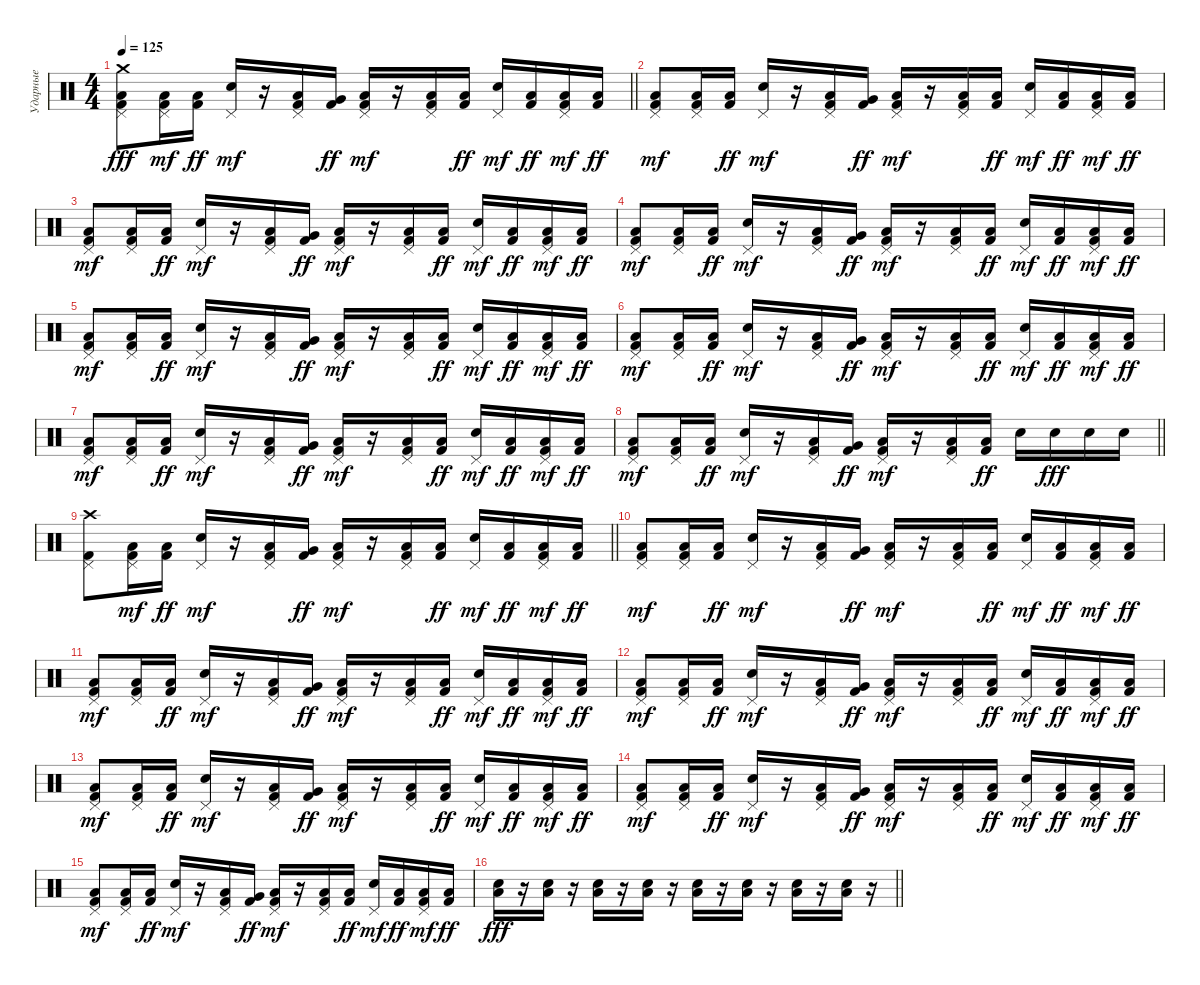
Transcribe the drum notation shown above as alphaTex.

\track ("Ударные" "Ударные") {instrument percussion}
\staff {score}
\articulation defaults
\ts (4 4)
\tempo 125
\clef neutral
\barLineRight lightlight
\ks c
("Kick (hit) 2" "Low Floor Tom (hit)" "Pedal Hi-Hat (hit)" "Crash medium (hit)").8{dy fff} ("Kick (hit) 2" "Low Floor Tom (hit)" "Pedal Hi-Hat (hit)").16{dy mf} ("Kick (hit) 2" "Low Tom (hit)").16{dy ff} ("Snare (hit) 2" "Pedal Hi-Hat (hit)").16{dy mf} r.16 ("Kick (hit) 2" "Low Tom (hit)" "Pedal Hi-Hat (hit)").16 ("Kick (hit) 2" "Very Low Tom (hit)").16{dy ff} ("Kick (hit) 2" "Low Floor Tom (hit)" "Pedal Hi-Hat (hit)").16{dy mf} r.16 ("Kick (hit) 2" "Low Floor Tom (hit)" "Pedal Hi-Hat (hit)").16 ("Kick (hit) 2" "Low Tom (hit)").16{dy ff} ("Snare (hit) 2" "Pedal Hi-Hat (hit)").16{dy mf} ("Kick (hit) 2" "Low Tom (hit)").16{dy ff} ("Kick (hit) 2" "Low Tom (hit)" "Pedal Hi-Hat (hit)").16{dy mf} ("Kick (hit) 2" "Low Floor Tom (hit)").16{dy ff} |
("Kick (hit) 2" "Low Floor Tom (hit)" "Pedal Hi-Hat (hit)").8{dy mf} ("Kick (hit) 2" "Low Floor Tom (hit)" "Pedal Hi-Hat (hit)").16 ("Kick (hit) 2" "Low Tom (hit)").16{dy ff} ("Snare (hit) 2" "Pedal Hi-Hat (hit)").16{dy mf} r.16 ("Kick (hit) 2" "Low Tom (hit)" "Pedal Hi-Hat (hit)").16 ("Kick (hit) 2" "Very Low Tom (hit)").16{dy ff} ("Kick (hit) 2" "Low Floor Tom (hit)" "Pedal Hi-Hat (hit)").16{dy mf} r.16 ("Kick (hit) 2" "Low Floor Tom (hit)" "Pedal Hi-Hat (hit)").16 ("Kick (hit) 2" "Low Tom (hit)").16{dy ff} ("Snare (hit) 2" "Pedal Hi-Hat (hit)").16{dy mf} ("Kick (hit) 2" "Low Tom (hit)").16{dy ff} ("Kick (hit) 2" "Low Tom (hit)" "Pedal Hi-Hat (hit)").16{dy mf} ("Kick (hit) 2" "Low Floor Tom (hit)").16{dy ff} |
("Kick (hit) 2" "Low Floor Tom (hit)" "Pedal Hi-Hat (hit)").8{dy mf} ("Kick (hit) 2" "Low Floor Tom (hit)" "Pedal Hi-Hat (hit)").16 ("Kick (hit) 2" "Low Tom (hit)").16{dy ff} ("Snare (hit) 2" "Pedal Hi-Hat (hit)").16{dy mf} r.16 ("Kick (hit) 2" "Low Tom (hit)" "Pedal Hi-Hat (hit)").16 ("Kick (hit) 2" "Very Low Tom (hit)").16{dy ff} ("Kick (hit) 2" "Low Floor Tom (hit)" "Pedal Hi-Hat (hit)").16{dy mf} r.16 ("Kick (hit) 2" "Low Floor Tom (hit)" "Pedal Hi-Hat (hit)").16 ("Kick (hit) 2" "Low Tom (hit)").16{dy ff} ("Snare (hit) 2" "Pedal Hi-Hat (hit)").16{dy mf} ("Kick (hit) 2" "Low Tom (hit)").16{dy ff} ("Kick (hit) 2" "Low Tom (hit)" "Pedal Hi-Hat (hit)").16{dy mf} ("Kick (hit) 2" "Low Floor Tom (hit)").16{dy ff} |
("Kick (hit) 2" "Low Floor Tom (hit)" "Pedal Hi-Hat (hit)").8{dy mf} ("Kick (hit) 2" "Low Floor Tom (hit)" "Pedal Hi-Hat (hit)").16 ("Kick (hit) 2" "Low Tom (hit)").16{dy ff} ("Snare (hit) 2" "Pedal Hi-Hat (hit)").16{dy mf} r.16 ("Kick (hit) 2" "Low Tom (hit)" "Pedal Hi-Hat (hit)").16 ("Kick (hit) 2" "Very Low Tom (hit)").16{dy ff} ("Kick (hit) 2" "Low Floor Tom (hit)" "Pedal Hi-Hat (hit)").16{dy mf} r.16 ("Kick (hit) 2" "Low Floor Tom (hit)" "Pedal Hi-Hat (hit)").16 ("Kick (hit) 2" "Low Tom (hit)").16{dy ff} ("Snare (hit) 2" "Pedal Hi-Hat (hit)").16{dy mf} ("Kick (hit) 2" "Low Tom (hit)").16{dy ff} ("Kick (hit) 2" "Low Tom (hit)" "Pedal Hi-Hat (hit)").16{dy mf} ("Kick (hit) 2" "Low Floor Tom (hit)").16{dy ff} |
("Kick (hit) 2" "Low Floor Tom (hit)" "Pedal Hi-Hat (hit)").8{dy mf} ("Kick (hit) 2" "Low Floor Tom (hit)" "Pedal Hi-Hat (hit)").16 ("Kick (hit) 2" "Low Tom (hit)").16{dy ff} ("Snare (hit) 2" "Pedal Hi-Hat (hit)").16{dy mf} r.16 ("Kick (hit) 2" "Low Tom (hit)" "Pedal Hi-Hat (hit)").16 ("Kick (hit) 2" "Very Low Tom (hit)").16{dy ff} ("Kick (hit) 2" "Low Floor Tom (hit)" "Pedal Hi-Hat (hit)").16{dy mf} r.16 ("Kick (hit) 2" "Low Floor Tom (hit)" "Pedal Hi-Hat (hit)").16 ("Kick (hit) 2" "Low Tom (hit)").16{dy ff} ("Snare (hit) 2" "Pedal Hi-Hat (hit)").16{dy mf} ("Kick (hit) 2" "Low Tom (hit)").16{dy ff} ("Kick (hit) 2" "Low Tom (hit)" "Pedal Hi-Hat (hit)").16{dy mf} ("Kick (hit) 2" "Low Floor Tom (hit)").16{dy ff} |
("Kick (hit) 2" "Low Floor Tom (hit)" "Pedal Hi-Hat (hit)").8{dy mf} ("Kick (hit) 2" "Low Floor Tom (hit)" "Pedal Hi-Hat (hit)").16 ("Kick (hit) 2" "Low Tom (hit)").16{dy ff} ("Snare (hit) 2" "Pedal Hi-Hat (hit)").16{dy mf} r.16 ("Kick (hit) 2" "Low Tom (hit)" "Pedal Hi-Hat (hit)").16 ("Kick (hit) 2" "Very Low Tom (hit)").16{dy ff} ("Kick (hit) 2" "Low Floor Tom (hit)" "Pedal Hi-Hat (hit)").16{dy mf} r.16 ("Kick (hit) 2" "Low Floor Tom (hit)" "Pedal Hi-Hat (hit)").16 ("Kick (hit) 2" "Low Tom (hit)").16{dy ff} ("Snare (hit) 2" "Pedal Hi-Hat (hit)").16{dy mf} ("Kick (hit) 2" "Low Tom (hit)").16{dy ff} ("Kick (hit) 2" "Low Tom (hit)" "Pedal Hi-Hat (hit)").16{dy mf} ("Kick (hit) 2" "Low Floor Tom (hit)").16{dy ff} |
("Kick (hit) 2" "Low Floor Tom (hit)" "Pedal Hi-Hat (hit)").8{dy mf} ("Kick (hit) 2" "Low Floor Tom (hit)" "Pedal Hi-Hat (hit)").16 ("Kick (hit) 2" "Low Tom (hit)").16{dy ff} ("Snare (hit) 2" "Pedal Hi-Hat (hit)").16{dy mf} r.16 ("Kick (hit) 2" "Low Tom (hit)" "Pedal Hi-Hat (hit)").16 ("Kick (hit) 2" "Very Low Tom (hit)").16{dy ff} ("Kick (hit) 2" "Low Floor Tom (hit)" "Pedal Hi-Hat (hit)").16{dy mf} r.16 ("Kick (hit) 2" "Low Floor Tom (hit)" "Pedal Hi-Hat (hit)").16 ("Kick (hit) 2" "Low Tom (hit)").16{dy ff} ("Snare (hit) 2" "Pedal Hi-Hat (hit)").16{dy mf} ("Kick (hit) 2" "Low Tom (hit)").16{dy ff} ("Kick (hit) 2" "Low Tom (hit)" "Pedal Hi-Hat (hit)").16{dy mf} ("Kick (hit) 2" "Low Floor Tom (hit)").16{dy ff} |
\barLineRight lightlight
("Kick (hit) 2" "Low Floor Tom (hit)" "Pedal Hi-Hat (hit)").8{dy mf} ("Kick (hit) 2" "Low Floor Tom (hit)" "Pedal Hi-Hat (hit)").16 ("Kick (hit) 2" "Low Tom (hit)").16{dy ff} ("Snare (hit) 2" "Pedal Hi-Hat (hit)").16{dy mf} r.16 ("Kick (hit) 2" "Low Tom (hit)" "Pedal Hi-Hat (hit)").16 ("Kick (hit) 2" "Very Low Tom (hit)").16{dy ff} ("Kick (hit) 2" "Low Floor Tom (hit)" "Pedal Hi-Hat (hit)").16{dy mf} r.16 ("Kick (hit) 2" "Low Floor Tom (hit)" "Pedal Hi-Hat (hit)").16 ("Kick (hit) 2" "Low Tom (hit)").16{dy ff} "Snare (hit) 2".16 "Snare (hit) 2".16{dy fff} "Snare (hit) 2".16 "Snare (hit) 2".16 |
\barLineRight lightlight
("Kick (hit) 2" "Pedal Hi-Hat (hit)" "Crash high (hit)").8 ("Kick (hit) 2" "Low Floor Tom (hit)" "Pedal Hi-Hat (hit)").16{dy mf} ("Kick (hit) 2" "Low Tom (hit)").16{dy ff} ("Snare (hit) 2" "Pedal Hi-Hat (hit)").16{dy mf} r.16 ("Kick (hit) 2" "Low Tom (hit)" "Pedal Hi-Hat (hit)").16 ("Kick (hit) 2" "Very Low Tom (hit)").16{dy ff} ("Kick (hit) 2" "Low Floor Tom (hit)" "Pedal Hi-Hat (hit)").16{dy mf} r.16 ("Kick (hit) 2" "Low Floor Tom (hit)" "Pedal Hi-Hat (hit)").16 ("Kick (hit) 2" "Low Tom (hit)").16{dy ff} ("Snare (hit) 2" "Pedal Hi-Hat (hit)").16{dy mf} ("Kick (hit) 2" "Low Tom (hit)").16{dy ff} ("Kick (hit) 2" "Low Tom (hit)" "Pedal Hi-Hat (hit)").16{dy mf} ("Kick (hit) 2" "Low Floor Tom (hit)").16{dy ff} |
("Kick (hit) 2" "Low Floor Tom (hit)" "Pedal Hi-Hat (hit)").8{dy mf} ("Kick (hit) 2" "Low Floor Tom (hit)" "Pedal Hi-Hat (hit)").16 ("Kick (hit) 2" "Low Tom (hit)").16{dy ff} ("Snare (hit) 2" "Pedal Hi-Hat (hit)").16{dy mf} r.16 ("Kick (hit) 2" "Low Tom (hit)" "Pedal Hi-Hat (hit)").16 ("Kick (hit) 2" "Very Low Tom (hit)").16{dy ff} ("Kick (hit) 2" "Low Floor Tom (hit)" "Pedal Hi-Hat (hit)").16{dy mf} r.16 ("Kick (hit) 2" "Low Floor Tom (hit)" "Pedal Hi-Hat (hit)").16 ("Kick (hit) 2" "Low Tom (hit)").16{dy ff} ("Snare (hit) 2" "Pedal Hi-Hat (hit)").16{dy mf} ("Kick (hit) 2" "Low Tom (hit)").16{dy ff} ("Kick (hit) 2" "Low Tom (hit)" "Pedal Hi-Hat (hit)").16{dy mf} ("Kick (hit) 2" "Low Floor Tom (hit)").16{dy ff} |
("Kick (hit) 2" "Low Floor Tom (hit)" "Pedal Hi-Hat (hit)").8{dy mf} ("Kick (hit) 2" "Low Floor Tom (hit)" "Pedal Hi-Hat (hit)").16 ("Kick (hit) 2" "Low Tom (hit)").16{dy ff} ("Snare (hit) 2" "Pedal Hi-Hat (hit)").16{dy mf} r.16 ("Kick (hit) 2" "Low Tom (hit)" "Pedal Hi-Hat (hit)").16 ("Kick (hit) 2" "Very Low Tom (hit)").16{dy ff} ("Kick (hit) 2" "Low Floor Tom (hit)" "Pedal Hi-Hat (hit)").16{dy mf} r.16 ("Kick (hit) 2" "Low Floor Tom (hit)" "Pedal Hi-Hat (hit)").16 ("Kick (hit) 2" "Low Tom (hit)").16{dy ff} ("Snare (hit) 2" "Pedal Hi-Hat (hit)").16{dy mf} ("Kick (hit) 2" "Low Tom (hit)").16{dy ff} ("Kick (hit) 2" "Low Tom (hit)" "Pedal Hi-Hat (hit)").16{dy mf} ("Kick (hit) 2" "Low Floor Tom (hit)").16{dy ff} |
("Kick (hit) 2" "Low Floor Tom (hit)" "Pedal Hi-Hat (hit)").8{dy mf} ("Kick (hit) 2" "Low Floor Tom (hit)" "Pedal Hi-Hat (hit)").16 ("Kick (hit) 2" "Low Tom (hit)").16{dy ff} ("Snare (hit) 2" "Pedal Hi-Hat (hit)").16{dy mf} r.16 ("Kick (hit) 2" "Low Tom (hit)" "Pedal Hi-Hat (hit)").16 ("Kick (hit) 2" "Very Low Tom (hit)").16{dy ff} ("Kick (hit) 2" "Low Floor Tom (hit)" "Pedal Hi-Hat (hit)").16{dy mf} r.16 ("Kick (hit) 2" "Low Floor Tom (hit)" "Pedal Hi-Hat (hit)").16 ("Kick (hit) 2" "Low Tom (hit)").16{dy ff} ("Snare (hit) 2" "Pedal Hi-Hat (hit)").16{dy mf} ("Kick (hit) 2" "Low Tom (hit)").16{dy ff} ("Kick (hit) 2" "Low Tom (hit)" "Pedal Hi-Hat (hit)").16{dy mf} ("Kick (hit) 2" "Low Floor Tom (hit)").16{dy ff} |
("Kick (hit) 2" "Low Floor Tom (hit)" "Pedal Hi-Hat (hit)").8{dy mf} ("Kick (hit) 2" "Low Floor Tom (hit)" "Pedal Hi-Hat (hit)").16 ("Kick (hit) 2" "Low Tom (hit)").16{dy ff} ("Snare (hit) 2" "Pedal Hi-Hat (hit)").16{dy mf} r.16 ("Kick (hit) 2" "Low Tom (hit)" "Pedal Hi-Hat (hit)").16 ("Kick (hit) 2" "Very Low Tom (hit)").16{dy ff} ("Kick (hit) 2" "Low Floor Tom (hit)" "Pedal Hi-Hat (hit)").16{dy mf} r.16 ("Kick (hit) 2" "Low Floor Tom (hit)" "Pedal Hi-Hat (hit)").16 ("Kick (hit) 2" "Low Tom (hit)").16{dy ff} ("Snare (hit) 2" "Pedal Hi-Hat (hit)").16{dy mf} ("Kick (hit) 2" "Low Tom (hit)").16{dy ff} ("Kick (hit) 2" "Low Tom (hit)" "Pedal Hi-Hat (hit)").16{dy mf} ("Kick (hit) 2" "Low Floor Tom (hit)").16{dy ff} |
("Kick (hit) 2" "Low Floor Tom (hit)" "Pedal Hi-Hat (hit)").8{dy mf} ("Kick (hit) 2" "Low Floor Tom (hit)" "Pedal Hi-Hat (hit)").16 ("Kick (hit) 2" "Low Tom (hit)").16{dy ff} ("Snare (hit) 2" "Pedal Hi-Hat (hit)").16{dy mf} r.16 ("Kick (hit) 2" "Low Tom (hit)" "Pedal Hi-Hat (hit)").16 ("Kick (hit) 2" "Very Low Tom (hit)").16{dy ff} ("Kick (hit) 2" "Low Floor Tom (hit)" "Pedal Hi-Hat (hit)").16{dy mf} r.16 ("Kick (hit) 2" "Low Floor Tom (hit)" "Pedal Hi-Hat (hit)").16 ("Kick (hit) 2" "Low Tom (hit)").16{dy ff} ("Snare (hit) 2" "Pedal Hi-Hat (hit)").16{dy mf} ("Kick (hit) 2" "Low Tom (hit)").16{dy ff} ("Kick (hit) 2" "Low Tom (hit)" "Pedal Hi-Hat (hit)").16{dy mf} ("Kick (hit) 2" "Low Floor Tom (hit)").16{dy ff} |
("Kick (hit) 2" "Low Floor Tom (hit)" "Pedal Hi-Hat (hit)").8{dy mf} ("Kick (hit) 2" "Low Floor Tom (hit)" "Pedal Hi-Hat (hit)").16 ("Kick (hit) 2" "Low Tom (hit)").16{dy ff} ("Snare (hit) 2" "Pedal Hi-Hat (hit)").16{dy mf} r.16 ("Kick (hit) 2" "Low Tom (hit)" "Pedal Hi-Hat (hit)").16 ("Kick (hit) 2" "Very Low Tom (hit)").16{dy ff} ("Kick (hit) 2" "Low Floor Tom (hit)" "Pedal Hi-Hat (hit)").16{dy mf} r.16 ("Kick (hit) 2" "Low Floor Tom (hit)" "Pedal Hi-Hat (hit)").16 ("Kick (hit) 2" "Low Tom (hit)").16{dy ff} ("Snare (hit) 2" "Pedal Hi-Hat (hit)").16{dy mf} ("Kick (hit) 2" "Low Tom (hit)").16{dy ff} ("Kick (hit) 2" "Low Tom (hit)" "Pedal Hi-Hat (hit)").16{dy mf} ("Kick (hit) 2" "Low Floor Tom (hit)").16{dy ff} |
\barLineRight lightlight
("Snare (hit) 2" "Low Floor Tom (hit)").16{dy fff volume 6} r.16 ("Snare (hit) 2" "Low Floor Tom (hit)").16{volume 13} r.16 ("Snare (hit) 2" "Low Floor Tom (hit)").16 r.16 ("Snare (hit) 2" "Low Floor Tom (hit)").16 r.16 ("Snare (hit) 2" "Low Floor Tom (hit)").16 r.16 ("Snare (hit) 2" "Low Floor Tom (hit)").16 r.16 ("Snare (hit) 2" "Low Floor Tom (hit)").16 r.16 ("Snare (hit) 2" "Low Floor Tom (hit)").16 r.16
